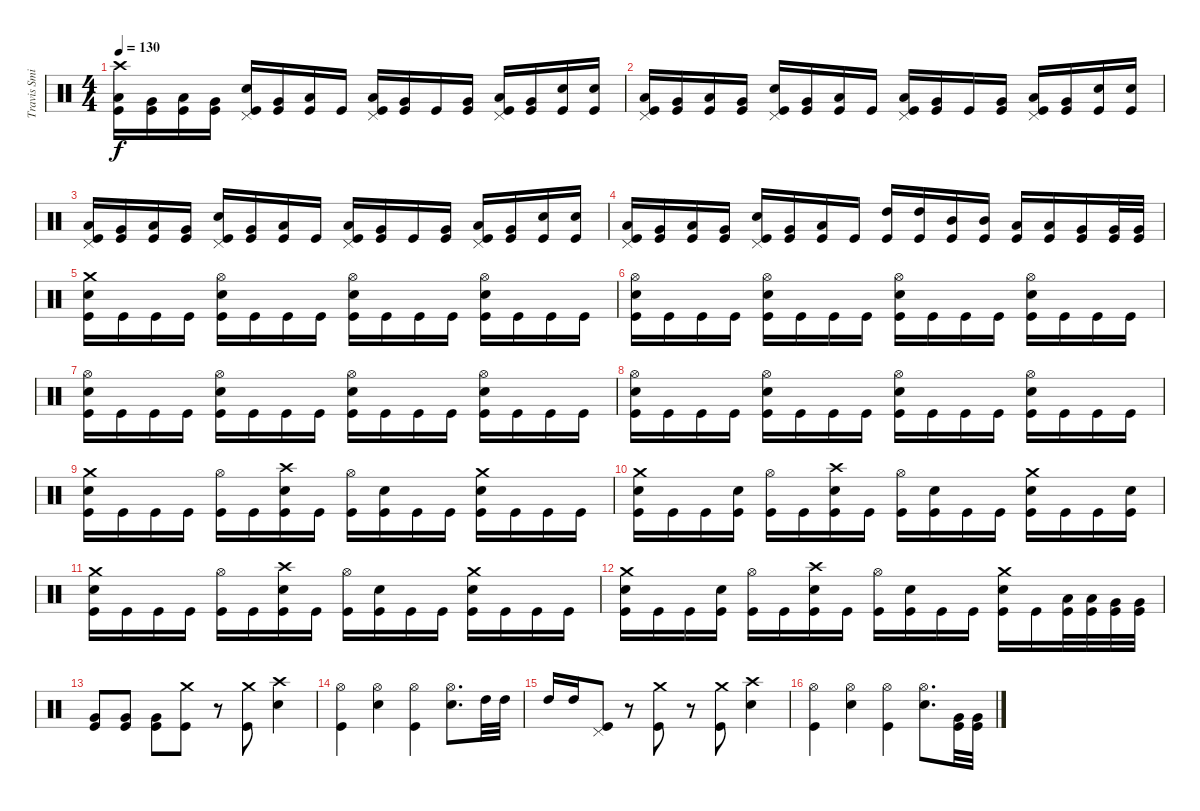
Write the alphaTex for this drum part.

\track ("Travis Smith" "Travis Smi") {instrument percussion}
\staff {score}
\articulation defaults
\ts (4 4)
\tempo 130
\clef neutral
\ks c
("Crash high (hit)" "Low Tom (hit)" "Kick (hit)").16{dy f} ("Very Low Tom (hit)" "Kick (hit)").16 ("Low Tom (hit)" "Kick (hit)").16 ("Very Low Tom (hit)" "Kick (hit)").16 ("Pedal Hi-Hat (hit)" "Snare (hit) 2" "Kick (hit)").16 ("Very Low Tom (hit)" "Kick (hit)").16 ("Low Tom (hit)" "Kick (hit)").16 "Kick (hit)".16 ("Pedal Hi-Hat (hit)" "Low Tom (hit)" "Kick (hit)").16 ("Very Low Tom (hit)" "Kick (hit)").16 "Kick (hit)".16 ("Very Low Tom (hit)" "Kick (hit)").16 ("Pedal Hi-Hat (hit)" "Low Tom (hit)" "Kick (hit)").16 ("Very Low Tom (hit)" "Kick (hit)").16 ("Snare (hit) 2" "Kick (hit)").16 ("Snare (hit) 2" "Kick (hit)").16 |
("Pedal Hi-Hat (hit)" "Low Tom (hit)" "Kick (hit)").16 ("Very Low Tom (hit)" "Kick (hit)").16 ("Low Tom (hit)" "Kick (hit)").16 ("Very Low Tom (hit)" "Kick (hit)").16 ("Pedal Hi-Hat (hit)" "Snare (hit) 2" "Kick (hit)").16 ("Very Low Tom (hit)" "Kick (hit)").16 ("Low Tom (hit)" "Kick (hit)").16 "Kick (hit)".16 ("Pedal Hi-Hat (hit)" "Low Tom (hit)" "Kick (hit)").16 ("Very Low Tom (hit)" "Kick (hit)").16 "Kick (hit)".16 ("Very Low Tom (hit)" "Kick (hit)").16 ("Pedal Hi-Hat (hit)" "Low Tom (hit)" "Kick (hit)").16 ("Very Low Tom (hit)" "Kick (hit)").16 ("Snare (hit) 2" "Kick (hit)").16 ("Snare (hit) 2" "Kick (hit)").16 |
("Pedal Hi-Hat (hit)" "Low Tom (hit)" "Kick (hit)").16 ("Very Low Tom (hit)" "Kick (hit)").16 ("Low Tom (hit)" "Kick (hit)").16 ("Very Low Tom (hit)" "Kick (hit)").16 ("Pedal Hi-Hat (hit)" "Snare (hit) 2" "Kick (hit)").16 ("Very Low Tom (hit)" "Kick (hit)").16 ("Low Tom (hit)" "Kick (hit)").16 "Kick (hit)".16 ("Pedal Hi-Hat (hit)" "Low Tom (hit)" "Kick (hit)").16 ("Very Low Tom (hit)" "Kick (hit)").16 "Kick (hit)".16 ("Very Low Tom (hit)" "Kick (hit)").16 ("Pedal Hi-Hat (hit)" "Low Tom (hit)" "Kick (hit)").16 ("Very Low Tom (hit)" "Kick (hit)").16 ("Snare (hit) 2" "Kick (hit)").16 ("Snare (hit) 2" "Kick (hit)").16 |
("Pedal Hi-Hat (hit)" "Low Tom (hit)" "Kick (hit)").16 ("Very Low Tom (hit)" "Kick (hit)").16 ("Low Tom (hit)" "Kick (hit)").16 ("Very Low Tom (hit)" "Kick (hit)").16 ("Pedal Hi-Hat (hit)" "Snare (hit) 2" "Kick (hit)").16 ("Very Low Tom (hit)" "Kick (hit)").16 ("Low Tom (hit)" "Kick (hit)").16 "Kick (hit)".16 ("High Tom (hit)" "Kick (hit)").16 ("High Tom (hit)" "Kick (hit)").16 ("Mid Tom (hit)" "Kick (hit)").16 ("Mid Tom (hit)" "Kick (hit)").16 ("Low Tom (hit)" "Kick (hit)").16 ("Low Tom (hit)" "Kick (hit)").16 ("Very Low Tom (hit)" "Kick (hit)").16 ("Very Low Tom (hit)" "Kick (hit)").32 ("Very Low Tom (hit)" "Kick (hit)").32 |
("Crash medium (hit)" "Snare (hit) 2" "Kick (hit)").16 "Kick (hit)".16 "Kick (hit)".16 "Kick (hit)".16 ("Hi-Hat (open)" "Snare (hit) 2" "Kick (hit)").16 "Kick (hit)".16 "Kick (hit)".16 "Kick (hit)".16 ("Hi-Hat (open)" "Snare (hit) 2" "Kick (hit)").16 "Kick (hit)".16 "Kick (hit)".16 "Kick (hit)".16 ("Hi-Hat (open)" "Snare (hit) 2" "Kick (hit)").16 "Kick (hit)".16 "Kick (hit)".16 "Kick (hit)".16 |
("Hi-Hat (open)" "Snare (hit) 2" "Kick (hit)").16 "Kick (hit)".16 "Kick (hit)".16 "Kick (hit)".16 ("Hi-Hat (open)" "Snare (hit) 2" "Kick (hit)").16 "Kick (hit)".16 "Kick (hit)".16 "Kick (hit)".16 ("Hi-Hat (open)" "Snare (hit) 2" "Kick (hit)").16 "Kick (hit)".16 "Kick (hit)".16 "Kick (hit)".16 ("Hi-Hat (open)" "Snare (hit) 2" "Kick (hit)").16 "Kick (hit)".16 "Kick (hit)".16 "Kick (hit)".16 |
("Hi-Hat (open)" "Snare (hit) 2" "Kick (hit)").16 "Kick (hit)".16 "Kick (hit)".16 "Kick (hit)".16 ("Hi-Hat (open)" "Snare (hit) 2" "Kick (hit)").16 "Kick (hit)".16 "Kick (hit)".16 "Kick (hit)".16 ("Hi-Hat (open)" "Snare (hit) 2" "Kick (hit)").16 "Kick (hit)".16 "Kick (hit)".16 "Kick (hit)".16 ("Hi-Hat (open)" "Snare (hit) 2" "Kick (hit)").16 "Kick (hit)".16 "Kick (hit)".16 "Kick (hit)".16 |
("Hi-Hat (open)" "Snare (hit) 2" "Kick (hit)").16 "Kick (hit)".16 "Kick (hit)".16 "Kick (hit)".16 ("Hi-Hat (open)" "Snare (hit) 2" "Kick (hit)").16 "Kick (hit)".16 "Kick (hit)".16 "Kick (hit)".16 ("Hi-Hat (open)" "Snare (hit) 2" "Kick (hit)").16 "Kick (hit)".16 "Kick (hit)".16 "Kick (hit)".16 ("Hi-Hat (open)" "Snare (hit) 2" "Kick (hit)").16 "Kick (hit)".16 "Kick (hit)".16 "Kick (hit)".16 |
("Crash medium (hit)" "Snare (hit) 2" "Kick (hit)").16 "Kick (hit)".16 "Kick (hit)".16 "Kick (hit)".16 ("Hi-Hat (open)" "Kick (hit)").16 "Kick (hit)".16 ("Crash high (hit)" "Snare (hit) 2" "Kick (hit)").16 "Kick (hit)".16 ("Hi-Hat (open)" "Kick (hit)").16 ("Snare (hit) 2" "Kick (hit)").16 "Kick (hit)".16 "Kick (hit)".16 ("Crash medium (hit)" "Snare (hit) 2" "Kick (hit)").16 "Kick (hit)".16 "Kick (hit)".16 "Kick (hit)".16 |
("Crash medium (hit)" "Snare (hit) 2" "Kick (hit)").16 "Kick (hit)".16 "Kick (hit)".16 ("Snare (hit) 2" "Kick (hit)").16 ("Hi-Hat (open)" "Kick (hit)").16 "Kick (hit)".16 ("Crash high (hit)" "Snare (hit) 2" "Kick (hit)").16 "Kick (hit)".16 ("Hi-Hat (open)" "Kick (hit)").16 ("Snare (hit) 2" "Kick (hit)").16 "Kick (hit)".16 "Kick (hit)".16 ("Crash medium (hit)" "Snare (hit) 2" "Kick (hit)").16 "Kick (hit)".16 "Kick (hit)".16 ("Snare (hit) 2" "Kick (hit)").16 |
("Crash medium (hit)" "Snare (hit) 2" "Kick (hit)").16 "Kick (hit)".16 "Kick (hit)".16 "Kick (hit)".16 ("Hi-Hat (open)" "Kick (hit)").16 "Kick (hit)".16 ("Crash high (hit)" "Snare (hit) 2" "Kick (hit)").16 "Kick (hit)".16 ("Hi-Hat (open)" "Kick (hit)").16 ("Snare (hit) 2" "Kick (hit)").16 "Kick (hit)".16 "Kick (hit)".16 ("Crash medium (hit)" "Snare (hit) 2" "Kick (hit)").16 "Kick (hit)".16 "Kick (hit)".16 "Kick (hit)".16 |
("Crash medium (hit)" "Snare (hit) 2" "Kick (hit)").16 "Kick (hit)".16 "Kick (hit)".16 ("Snare (hit) 2" "Kick (hit)").16 ("Hi-Hat (open)" "Kick (hit)").16 "Kick (hit)".16 ("Crash high (hit)" "Snare (hit) 2" "Kick (hit)").16 "Kick (hit)".16 ("Hi-Hat (open)" "Kick (hit)").16 ("Snare (hit) 2" "Kick (hit)").16 "Kick (hit)".16 "Kick (hit)".16 ("Crash medium (hit)" "Snare (hit) 2" "Kick (hit)").16 "Kick (hit)".16 ("Low Tom (hit)" "Kick (hit)").32 ("Low Tom (hit)" "Kick (hit)").32 ("Very Low Tom (hit)" "Kick (hit)").32 ("Very Low Tom (hit)" "Kick (hit)").32 |
("Very Low Tom (hit)" "Kick (hit)").8 ("Very Low Tom (hit)" "Kick (hit)").8 ("Very Low Tom (hit)" "Kick (hit)").8 ("Crash medium (hit)" "Kick (hit)").8 r.8 ("Crash medium (hit)" "Kick (hit)").8 ("Crash high (hit)" "Snare (hit) 2").4 |
("Hi-Hat (open)" "Kick (hit)").4 ("Hi-Hat (open)" "Snare (hit) 2").4 ("Hi-Hat (open)" "Kick (hit)").4 ("Hi-Hat (open)" "Snare (hit) 2").8{d} "High Tom (hit)".32 "High Tom (hit)".32 |
"High Tom (hit)".16 "High Tom (hit)".16 ("Pedal Hi-Hat (hit)" "Kick (hit)").8 r.8 ("Crash medium (hit)" "Kick (hit)").8 r.8 ("Crash medium (hit)" "Kick (hit)").8 ("Crash high (hit)" "Snare (hit) 2").4 |
("Hi-Hat (open)" "Kick (hit)").4 ("Hi-Hat (open)" "Snare (hit) 2").4 ("Hi-Hat (open)" "Kick (hit)").4 ("Hi-Hat (open)" "Snare (hit) 2").8{d} ("Very Low Tom (hit)" "Kick (hit)").32 ("Very Low Tom (hit)" "Kick (hit)").32
